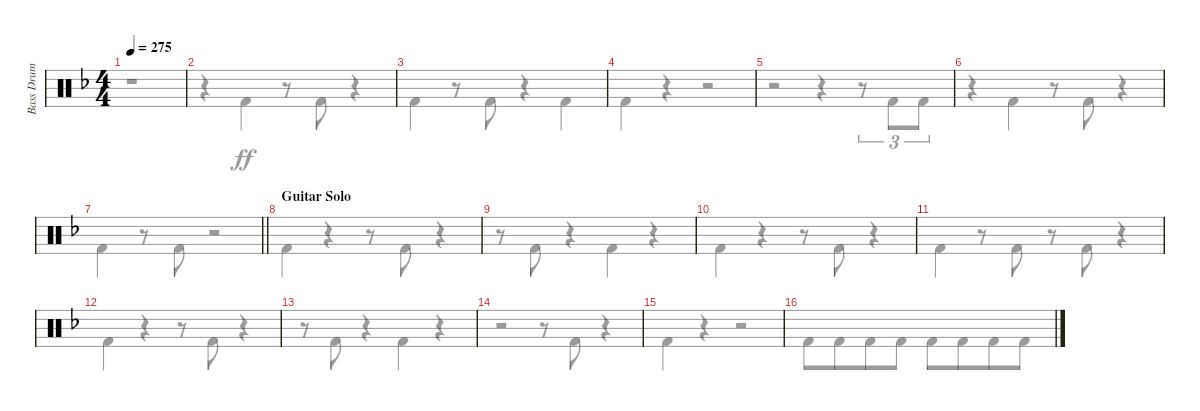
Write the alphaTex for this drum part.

\track ("Bass Drum" "Bass Drum") {instrument percussion}
\staff {score}
\articulation defaults
\voice
\ts (4 4)
\tempo 275
\clef neutral
\ks dminor
|
|
|
|
|
|
\barLineRight lightlight
|
\section ("" "Guitar Solo")
|
|
|
|
|
|
|
|
\voice
\clef neutral
\ks dminor
r.1{dy ff} |
r.4 "Kick (hit) 2".4 r.8 "Kick (hit) 2".8 r.4 |
"Kick (hit) 2".4 r.8 "Kick (hit) 2".8 r.4 "Kick (hit) 2".4 |
"Kick (hit) 2".4 r.4 r.2 |
r.2 r.4 r.8{tu (3 2)} "Kick (hit) 2".8{tu (3 2)} "Kick (hit) 2".8{tu (3 2)} |
r.4 "Kick (hit) 2".4 r.8 "Kick (hit) 2".8 r.4 |
\barLineRight lightlight "Kick (hit) 2".4
r.8 "Kick (hit) 2".8 r.2 |
"Kick (hit) 2".4 r.4 r.8 "Kick (hit) 2".8 r.4 |
r.8 "Kick (hit) 2".8 r.4 "Kick (hit) 2".4 r.4 |
"Kick (hit) 2".4 r.4 r.8 "Kick (hit) 2".8 r.4 |
"Kick (hit) 2".4 r.8 "Kick (hit) 2".8 r.8 "Kick (hit) 2".8 r.4 |
"Kick (hit) 2".4 r.4 r.8 "Kick (hit) 2".8 r.4 |
r.8 "Kick (hit) 2".8 r.4 "Kick (hit) 2".4 r.4 |
r.2 r.8 "Kick (hit) 2".8 r.4 |
"Kick (hit) 2".4 r.4 r.2 |
"Kick (hit) 2".8 "Kick (hit) 2".8{beam merge} "Kick (hit) 2".8 "Kick (hit) 2".8 "Kick (hit) 2".8 "Kick (hit) 2".8{beam merge} "Kick (hit) 2".8 "Kick (hit) 2".8
